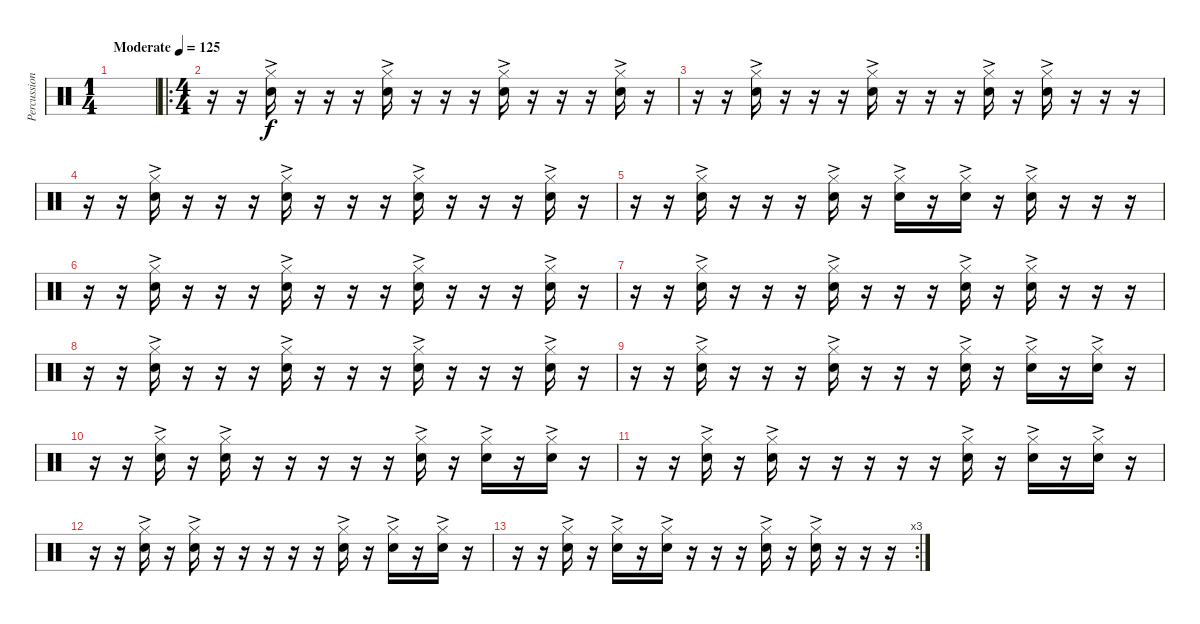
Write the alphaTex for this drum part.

\track ("Percussion" "Percussion") {instrument percussion}
\staff {score}
\articulation defaults
\ts (1 4)
\tempo (125 "Moderate")
\clef neutral
\ks c
|
\ro
\ts (4 4)
r.16 r.16 ("Hi-Hat (closed)"{ac} "Snare (hit) 2"{ac}).16 r.16 r.16 r.16 ("Hi-Hat (closed)"{ac} "Snare (hit) 2"{ac}).16 r.16 r.16 r.16 ("Hi-Hat (closed)"{ac} "Snare (hit) 2"{ac}).16 r.16 r.16 r.16 ("Hi-Hat (closed)"{ac} "Snare (hit) 2"{ac}).16 r.16 |
r.16 r.16 ("Hi-Hat (closed)"{ac} "Snare (hit) 2"{ac}).16 r.16 r.16 r.16 ("Hi-Hat (closed)"{ac} "Snare (hit) 2"{ac}).16 r.16 r.16 r.16 ("Hi-Hat (closed)"{ac} "Snare (hit) 2"{ac}).16 r.16 ("Hi-Hat (closed)"{ac} "Snare (hit) 2"{ac}).16 r.16 r.16 r.16 |
r.16 r.16 ("Hi-Hat (closed)"{ac} "Snare (hit) 2"{ac}).16 r.16 r.16 r.16 ("Hi-Hat (closed)"{ac} "Snare (hit) 2"{ac}).16 r.16 r.16 r.16 ("Hi-Hat (closed)"{ac} "Snare (hit) 2"{ac}).16 r.16 r.16 r.16 ("Hi-Hat (closed)"{ac} "Snare (hit) 2"{ac}).16 r.16 |
r.16 r.16 ("Hi-Hat (closed)"{ac} "Snare (hit) 2"{ac}).16 r.16 r.16 r.16 ("Hi-Hat (closed)"{ac} "Snare (hit) 2"{ac}).16 r.16 ("Hi-Hat (closed)"{ac} "Snare (hit) 2"{ac}).16 r.16 ("Hi-Hat (closed)"{ac} "Snare (hit) 2"{ac}).16 r.16 ("Hi-Hat (closed)"{ac} "Snare (hit) 2"{ac}).16 r.16 r.16 r.16 |
r.16 r.16 ("Hi-Hat (closed)"{ac} "Snare (hit) 2"{ac}).16 r.16 r.16 r.16 ("Hi-Hat (closed)"{ac} "Snare (hit) 2"{ac}).16 r.16 r.16 r.16 ("Hi-Hat (closed)"{ac} "Snare (hit) 2"{ac}).16 r.16 r.16 r.16 ("Hi-Hat (closed)"{ac} "Snare (hit) 2"{ac}).16 r.16 |
r.16 r.16 ("Hi-Hat (closed)"{ac} "Snare (hit) 2"{ac}).16 r.16 r.16 r.16 ("Hi-Hat (closed)"{ac} "Snare (hit) 2"{ac}).16 r.16 r.16 r.16 ("Hi-Hat (closed)"{ac} "Snare (hit) 2"{ac}).16 r.16 ("Hi-Hat (closed)"{ac} "Snare (hit) 2"{ac}).16 r.16 r.16 r.16 |
r.16 r.16 ("Hi-Hat (closed)"{ac} "Snare (hit) 2"{ac}).16 r.16 r.16 r.16 ("Hi-Hat (closed)"{ac} "Snare (hit) 2"{ac}).16 r.16 r.16 r.16 ("Hi-Hat (closed)"{ac} "Snare (hit) 2"{ac}).16 r.16 r.16 r.16 ("Hi-Hat (closed)"{ac} "Snare (hit) 2"{ac}).16 r.16 |
r.16 r.16 ("Hi-Hat (closed)"{ac} "Snare (hit) 2"{ac}).16 r.16 r.16 r.16 ("Hi-Hat (closed)"{ac} "Snare (hit) 2"{ac}).16 r.16 r.16 r.16 ("Hi-Hat (closed)"{ac} "Snare (hit) 2"{ac}).16 r.16 ("Hi-Hat (closed)"{ac} "Snare (hit) 2"{ac}).16 r.16 ("Hi-Hat (closed)"{ac} "Snare (hit) 2"{ac}).16 r.16 |
r.16 r.16 ("Hi-Hat (closed)"{ac} "Snare (hit) 2"{ac}).16 r.16 ("Hi-Hat (closed)"{ac} "Snare (hit) 2"{ac}).16 r.16 r.16 r.16 r.16 r.16 ("Hi-Hat (closed)"{ac} "Snare (hit) 2"{ac}).16 r.16 ("Hi-Hat (closed)"{ac} "Snare (hit) 2"{ac}).16 r.16 ("Hi-Hat (closed)"{ac} "Snare (hit) 2"{ac}).16 r.16 |
r.16 r.16 ("Hi-Hat (closed)"{ac} "Snare (hit) 2"{ac}).16 r.16 ("Hi-Hat (closed)"{ac} "Snare (hit) 2"{ac}).16 r.16 r.16 r.16 r.16 r.16 ("Hi-Hat (closed)"{ac} "Snare (hit) 2"{ac}).16 r.16 ("Hi-Hat (closed)"{ac} "Snare (hit) 2"{ac}).16 r.16 ("Hi-Hat (closed)"{ac} "Snare (hit) 2"{ac}).16 r.16 |
r.16 r.16 ("Hi-Hat (closed)"{ac} "Snare (hit) 2"{ac}).16 r.16 ("Hi-Hat (closed)"{ac} "Snare (hit) 2"{ac}).16 r.16 r.16 r.16 r.16 r.16 ("Hi-Hat (closed)"{ac} "Snare (hit) 2"{ac}).16 r.16 ("Hi-Hat (closed)"{ac} "Snare (hit) 2"{ac}).16 r.16 ("Hi-Hat (closed)"{ac} "Snare (hit) 2"{ac}).16 r.16 |
\rc 3
r.16 r.16 ("Hi-Hat (closed)"{ac} "Snare (hit) 2"{ac}).16 r.16 ("Hi-Hat (closed)"{ac} "Snare (hit) 2"{ac}).16 r.16 ("Hi-Hat (closed)"{ac} "Snare (hit) 2"{ac}).16 r.16 r.16 r.16 ("Hi-Hat (closed)"{ac} "Snare (hit) 2"{ac}).16 r.16 ("Hi-Hat (closed)"{ac} "Snare (hit) 2"{ac}).16 r.16 r.16 r.16
